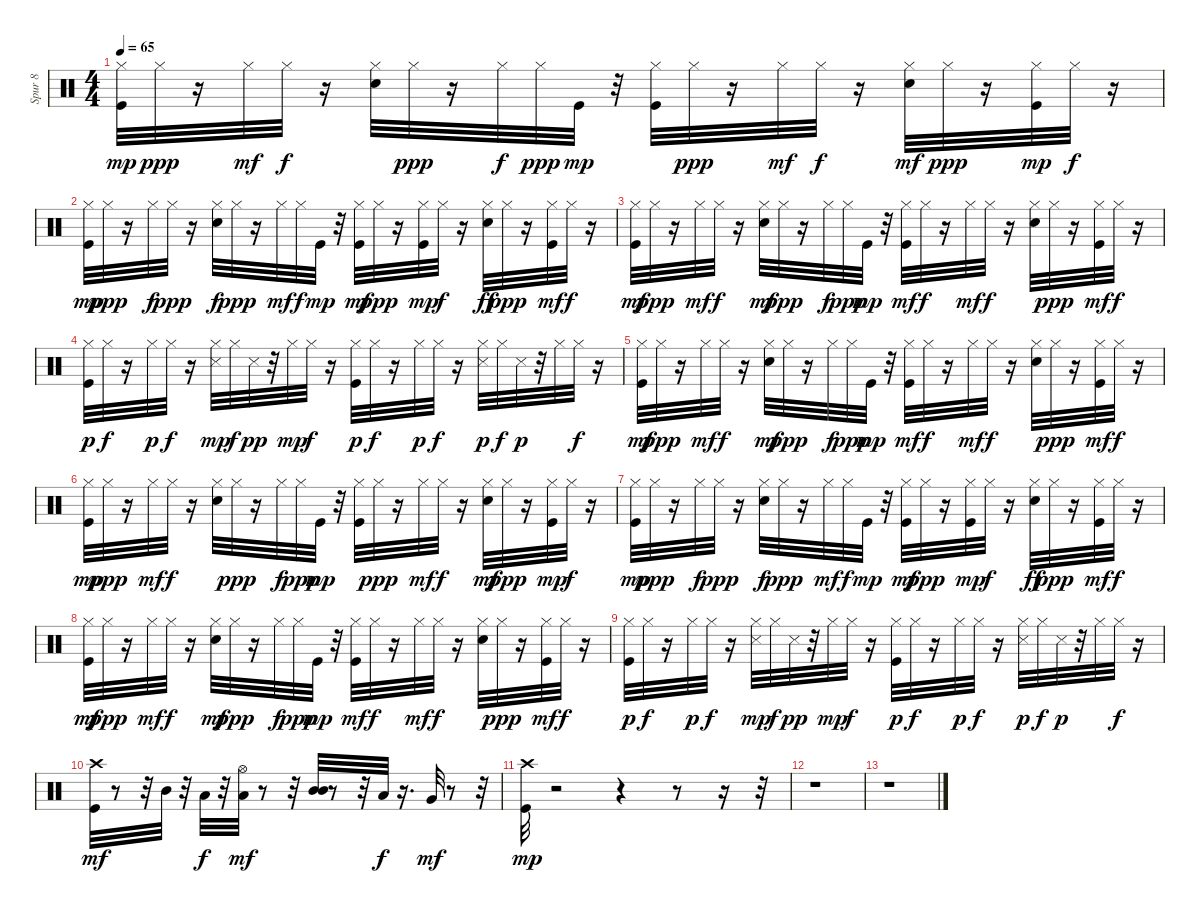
\track ("Spur 8" "Spur 8") {instrument percussion}
\staff {score}
\articulation defaults
\ts (4 4)
\tempo 65
\clef neutral
\ks c
("Kick (hit)" "Hi-Hat (closed)").32{dy mp} "Hi-Hat (closed)".32{dy ppp} r.16 "Hi-Hat (closed)".32{dy mf} "Hi-Hat (closed)".32{dy f} r.16 ("Metronome (bell)" "Hi-Hat (closed)").32 "Hi-Hat (closed)".32{dy ppp} r.16 "Hi-Hat (closed)".32{dy f} "Hi-Hat (closed)".32{dy ppp} "Kick (hit)".32{dy mp} r.32 ("Kick (hit)" "Hi-Hat (closed)").32 "Hi-Hat (closed)".32{dy ppp} r.16 "Hi-Hat (closed)".32{dy mf} "Hi-Hat (closed)".32{dy f} r.16 ("Metronome (bell)" "Hi-Hat (closed)").32{dy mf} "Hi-Hat (closed)".32{dy ppp} r.16 ("Kick (hit)" "Hi-Hat (closed)").32{dy mp} "Hi-Hat (closed)".32{dy f} r.16 |
("Kick (hit)" "Hi-Hat (closed)").32{dy mp} "Hi-Hat (closed)".32{dy ppp} r.16 "Hi-Hat (closed)".32{dy f} "Hi-Hat (closed)".32{dy ppp} r.16 ("Metronome (bell)" "Hi-Hat (closed)").32{dy f} "Hi-Hat (closed)".32{dy ppp} r.16 "Hi-Hat (closed)".32{dy mf} "Hi-Hat (closed)".32{dy f} "Kick (hit)".32{dy mp} r.32 ("Kick (hit)" "Hi-Hat (closed)").32{dy mf} "Hi-Hat (closed)".32{dy ppp} r.16 ("Kick (hit)" "Hi-Hat (closed)").32{dy mp} "Hi-Hat (closed)".32{dy f} r.16 ("Metronome (bell)" "Hi-Hat (closed)").32{dy ff} "Hi-Hat (closed)".32{dy ppp} r.16 ("Kick (hit)" "Hi-Hat (closed)").32{dy mf} "Hi-Hat (closed)".32{dy f} r.16 |
("Kick (hit)" "Hi-Hat (closed)").32{dy mf} "Hi-Hat (closed)".32{dy ppp} r.16 "Hi-Hat (closed)".32{dy mf} "Hi-Hat (closed)".32{dy f} r.16 ("Metronome (bell)" "Hi-Hat (closed)").32{dy mf} "Hi-Hat (closed)".32{dy ppp} r.16 "Hi-Hat (closed)".32{dy f} "Hi-Hat (closed)".32{dy ppp} "Kick (hit)".32{dy mp} r.32 ("Kick (hit)" "Hi-Hat (closed)").32{dy mf} "Hi-Hat (closed)".32{dy f} r.16 "Hi-Hat (closed)".32{dy mf} "Hi-Hat (closed)".32{dy f} r.16 ("Metronome (bell)" "Hi-Hat (closed)").32 "Hi-Hat (closed)".32{dy ppp} r.16 ("Kick (hit)" "Hi-Hat (closed)").32{dy mf} "Hi-Hat (closed)".32{dy f} r.16 |
("Kick (hit)" "Hi-Hat (closed)").32{dy p} "Hi-Hat (closed)".32{dy f} r.16 "Hi-Hat (closed)".32{dy p} "Hi-Hat (closed)".32{dy f} r.16 ("Hi-Hat (closed)" "Snare (side stick) 3").32{dy mp} "Hi-Hat (closed)".32{dy f} "Snare (side stick) 3".32{dy pp} r.32 "Hi-Hat (closed)".32{dy mp} "Hi-Hat (closed)".32{dy f} r.16 ("Kick (hit)" "Hi-Hat (closed)").32{dy p} "Hi-Hat (closed)".32{dy f} r.16 "Hi-Hat (closed)".32{dy p} "Hi-Hat (closed)".32{dy f} r.16 ("Hi-Hat (closed)" "Snare (side stick) 3").32{dy p} "Hi-Hat (closed)".32{dy f} "Snare (side stick) 3".32{dy p} r.32 "Hi-Hat (closed)".32 "Hi-Hat (closed)".32{dy f} r.16 |
("Kick (hit)" "Hi-Hat (closed)").32{dy mf} "Hi-Hat (closed)".32{dy ppp} r.16 "Hi-Hat (closed)".32{dy mf} "Hi-Hat (closed)".32{dy f} r.16 ("Metronome (bell)" "Hi-Hat (closed)").32{dy mf} "Hi-Hat (closed)".32{dy ppp} r.16 "Hi-Hat (closed)".32{dy f} "Hi-Hat (closed)".32{dy ppp} "Kick (hit)".32{dy mp} r.32 ("Kick (hit)" "Hi-Hat (closed)").32{dy mf} "Hi-Hat (closed)".32{dy f} r.16 "Hi-Hat (closed)".32{dy mf} "Hi-Hat (closed)".32{dy f} r.16 ("Metronome (bell)" "Hi-Hat (closed)").32 "Hi-Hat (closed)".32{dy ppp} r.16 ("Kick (hit)" "Hi-Hat (closed)").32{dy mf} "Hi-Hat (closed)".32{dy f} r.16 |
("Kick (hit)" "Hi-Hat (closed)").32{dy mp} "Hi-Hat (closed)".32{dy ppp} r.16 "Hi-Hat (closed)".32{dy mf} "Hi-Hat (closed)".32{dy f} r.16 ("Metronome (bell)" "Hi-Hat (closed)").32 "Hi-Hat (closed)".32{dy ppp} r.16 "Hi-Hat (closed)".32{dy f} "Hi-Hat (closed)".32{dy ppp} "Kick (hit)".32{dy mp} r.32 ("Kick (hit)" "Hi-Hat (closed)").32 "Hi-Hat (closed)".32{dy ppp} r.16 "Hi-Hat (closed)".32{dy mf} "Hi-Hat (closed)".32{dy f} r.16 ("Metronome (bell)" "Hi-Hat (closed)").32{dy mf} "Hi-Hat (closed)".32{dy ppp} r.16 ("Kick (hit)" "Hi-Hat (closed)").32{dy mp} "Hi-Hat (closed)".32{dy f} r.16 |
("Kick (hit)" "Hi-Hat (closed)").32{dy mp} "Hi-Hat (closed)".32{dy ppp} r.16 "Hi-Hat (closed)".32{dy f} "Hi-Hat (closed)".32{dy ppp} r.16 ("Metronome (bell)" "Hi-Hat (closed)").32{dy f} "Hi-Hat (closed)".32{dy ppp} r.16 "Hi-Hat (closed)".32{dy mf} "Hi-Hat (closed)".32{dy f} "Kick (hit)".32{dy mp} r.32 ("Kick (hit)" "Hi-Hat (closed)").32{dy mf} "Hi-Hat (closed)".32{dy ppp} r.16 ("Kick (hit)" "Hi-Hat (closed)").32{dy mp} "Hi-Hat (closed)".32{dy f} r.16 ("Metronome (bell)" "Hi-Hat (closed)").32{dy ff} "Hi-Hat (closed)".32{dy ppp} r.16 ("Kick (hit)" "Hi-Hat (closed)").32{dy mf} "Hi-Hat (closed)".32{dy f} r.16 |
("Kick (hit)" "Hi-Hat (closed)").32{dy mf} "Hi-Hat (closed)".32{dy ppp} r.16 "Hi-Hat (closed)".32{dy mf} "Hi-Hat (closed)".32{dy f} r.16 ("Metronome (bell)" "Hi-Hat (closed)").32{dy mf} "Hi-Hat (closed)".32{dy ppp} r.16 "Hi-Hat (closed)".32{dy f} "Hi-Hat (closed)".32{dy ppp} "Kick (hit)".32{dy mp} r.32 ("Kick (hit)" "Hi-Hat (closed)").32{dy mf} "Hi-Hat (closed)".32{dy f} r.16 "Hi-Hat (closed)".32{dy mf} "Hi-Hat (closed)".32{dy f} r.16 ("Metronome (bell)" "Hi-Hat (closed)").32 "Hi-Hat (closed)".32{dy ppp} r.16 ("Kick (hit)" "Hi-Hat (closed)").32{dy mf} "Hi-Hat (closed)".32{dy f} r.16 |
("Kick (hit)" "Hi-Hat (closed)").32{dy p} "Hi-Hat (closed)".32{dy f} r.16 "Hi-Hat (closed)".32{dy p} "Hi-Hat (closed)".32{dy f} r.16 ("Hi-Hat (closed)" "Snare (side stick) 3").32{dy mp} "Hi-Hat (closed)".32{dy f} "Snare (side stick) 3".32{dy pp} r.32 "Hi-Hat (closed)".32{dy mp} "Hi-Hat (closed)".32{dy f} r.16 ("Kick (hit)" "Hi-Hat (closed)").32{dy p} "Hi-Hat (closed)".32{dy f} r.16 "Hi-Hat (closed)".32{dy p} "Hi-Hat (closed)".32{dy f} r.16 ("Hi-Hat (closed)" "Snare (side stick) 3").32{dy p} "Hi-Hat (closed)".32{dy f} "Snare (side stick) 3".32{dy p} r.32 "Hi-Hat (closed)".32 "Hi-Hat (closed)".32{dy f} r.16 |
("Kick (hit)" "Crash high (hit)").32{dy mf} r.8 r.32 "Mid Tom (hit)".32 r.32 "Low Tom (hit)".32{dy f} r.32 ("Low Floor Tom (hit)" "Hi-Hat (open)").32{dy mf} r.8 r.32 ("Mid Tom (hit)" "Mid Tom (hit)").32 r.8 r.32 "Low Tom (hit)".32{dy f} r.16{d} "Very Low Tom (hit)".32{dy mf} r.8 r.32 |
("Kick (hit)" "Crash high (hit)").32{dy mp} r.2 r.4 r.8 r.16 r.32 |
r.1 |
r.1
